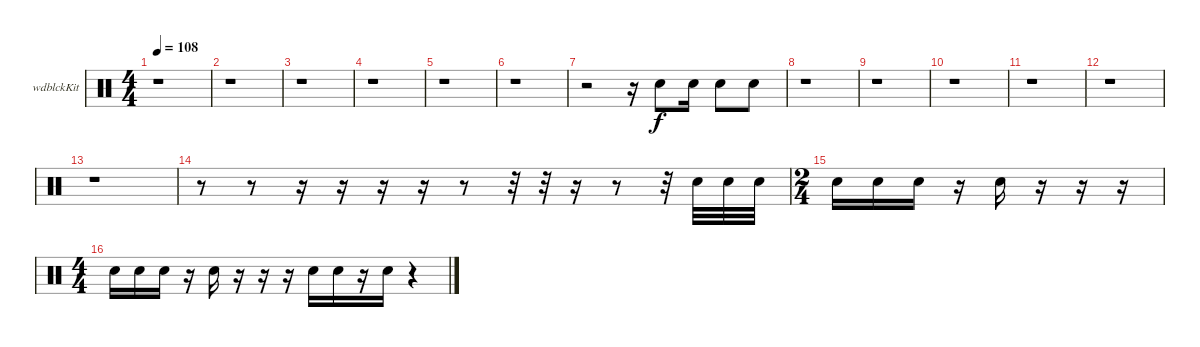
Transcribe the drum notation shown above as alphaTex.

\bracketExtendMode groupsimilarinstruments
\firstSystemTrackNameOrientation horizontal
\otherSystemsTrackNameOrientation horizontal
\track ("Woodblock" "wdblckKit") {instrument percussion}
\staff {score}
\articulation defaults
\ts (4 4)
\tempo 108
\clef neutral
\ks c
r.1{dy f} |
r.1 |
r.1 |
r.1 |
r.1 |
r.1 |
r.2 r.16 "Snare (hit) 2".8 "Snare (hit) 2".16 "Snare (hit) 2".8 "Snare (hit) 2".8 |
r.1 |
r.1 |
r.1 |
r.1 |
r.1 |
r.1 |
r.8 r.8 r.16 r.16 r.16 r.16 r.8 r.32 r.32 r.16 r.8 r.32 "Snare (hit) 2".32 "Snare (hit) 2".32 "Snare (hit) 2".32 |
\ts (2 4)
\beaming (8 2 2)
"Snare (hit) 2".16 "Snare (hit) 2".16 "Snare (hit) 2".16 r.16 "Snare (hit) 2".16 r.16 r.16 r.16 |
\ts (4 4)
\beaming (8 2 2 2 2)
"Snare (hit) 2".16 "Snare (hit) 2".16 "Snare (hit) 2".16 r.16 "Snare (hit) 2".16 r.16 r.16 r.16 "Snare (hit) 2".16 "Snare (hit) 2".16 r.16 "Snare (hit) 2".16 r.4
